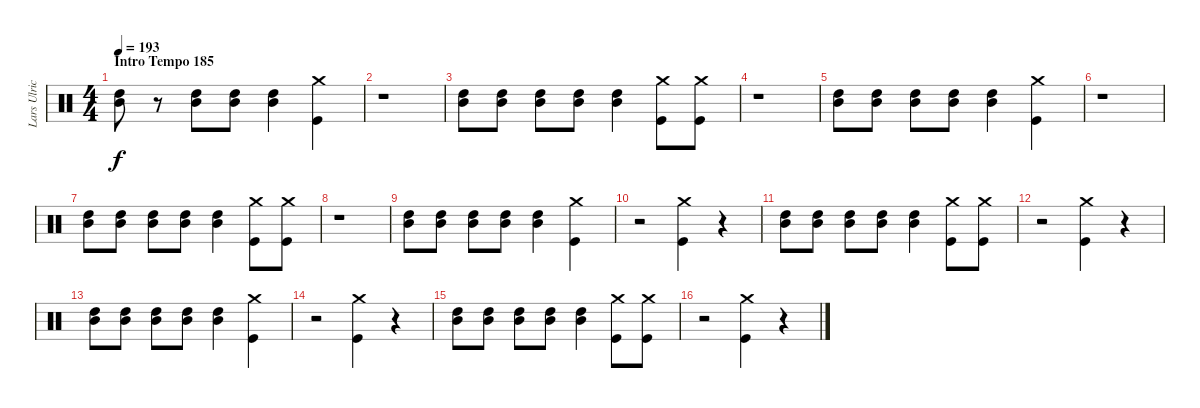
\track ("Lars Ulrich (Drums)" "Lars Ulric") {instrument percussion}
\staff {score}
\articulation defaults
\ts (4 4)
\section ("" "Intro Tempo 185")
\tempo 193
\tempo 185
\tempo 193
\clef neutral
\ks c
("High Tom (hit)" "Mid Tom (hit)").8{dy f} r.8 ("High Tom (hit)" "Mid Tom (hit)").8 ("High Tom (hit)" "Mid Tom (hit)").8 ("High Tom (hit)" "Mid Tom (hit)").4 ("Crash medium (hit)" "Kick (hit)").4 |
r.1 |
("High Tom (hit)" "Mid Tom (hit)").8 ("High Tom (hit)" "Mid Tom (hit)").8 ("High Tom (hit)" "Mid Tom (hit)").8 ("High Tom (hit)" "Mid Tom (hit)").8 ("High Tom (hit)" "Mid Tom (hit)").4 ("Crash medium (hit)" "Kick (hit)").8 ("Kick (hit)" "Crash medium (hit)").8 |
r.1 |
("High Tom (hit)" "Mid Tom (hit)").8 ("High Tom (hit)" "Mid Tom (hit)").8 ("High Tom (hit)" "Mid Tom (hit)").8 ("High Tom (hit)" "Mid Tom (hit)").8 ("High Tom (hit)" "Mid Tom (hit)").4 ("Crash medium (hit)" "Kick (hit)").4 |
r.1 |
("High Tom (hit)" "Mid Tom (hit)").8 ("High Tom (hit)" "Mid Tom (hit)").8 ("High Tom (hit)" "Mid Tom (hit)").8 ("High Tom (hit)" "Mid Tom (hit)").8 ("High Tom (hit)" "Mid Tom (hit)").4 ("Crash medium (hit)" "Kick (hit)").8 ("Kick (hit)" "Crash medium (hit)").8 |
r.1 |
("High Tom (hit)" "Mid Tom (hit)").8 ("High Tom (hit)" "Mid Tom (hit)").8 ("High Tom (hit)" "Mid Tom (hit)").8 ("High Tom (hit)" "Mid Tom (hit)").8 ("High Tom (hit)" "Mid Tom (hit)").4 ("Crash medium (hit)" "Kick (hit)").4 |
r.2 ("Kick (hit)" "Crash medium (hit)").4 r.4 |
("High Tom (hit)" "Mid Tom (hit)").8 ("High Tom (hit)" "Mid Tom (hit)").8 ("High Tom (hit)" "Mid Tom (hit)").8 ("High Tom (hit)" "Mid Tom (hit)").8 ("High Tom (hit)" "Mid Tom (hit)").4 ("Crash medium (hit)" "Kick (hit)").8 ("Kick (hit)" "Crash medium (hit)").8 |
r.2 ("Kick (hit)" "Crash medium (hit)").4 r.4 |
("High Tom (hit)" "Mid Tom (hit)").8 ("High Tom (hit)" "Mid Tom (hit)").8 ("High Tom (hit)" "Mid Tom (hit)").8 ("High Tom (hit)" "Mid Tom (hit)").8 ("High Tom (hit)" "Mid Tom (hit)").4 ("Crash medium (hit)" "Kick (hit)").4 |
r.2 ("Kick (hit)" "Crash medium (hit)").4 r.4 |
("High Tom (hit)" "Mid Tom (hit)").8 ("High Tom (hit)" "Mid Tom (hit)").8 ("High Tom (hit)" "Mid Tom (hit)").8 ("High Tom (hit)" "Mid Tom (hit)").8 ("High Tom (hit)" "Mid Tom (hit)").4 ("Crash medium (hit)" "Kick (hit)").8 ("Kick (hit)" "Crash medium (hit)").8 |
r.2 ("Kick (hit)" "Crash medium (hit)").4 r.4
